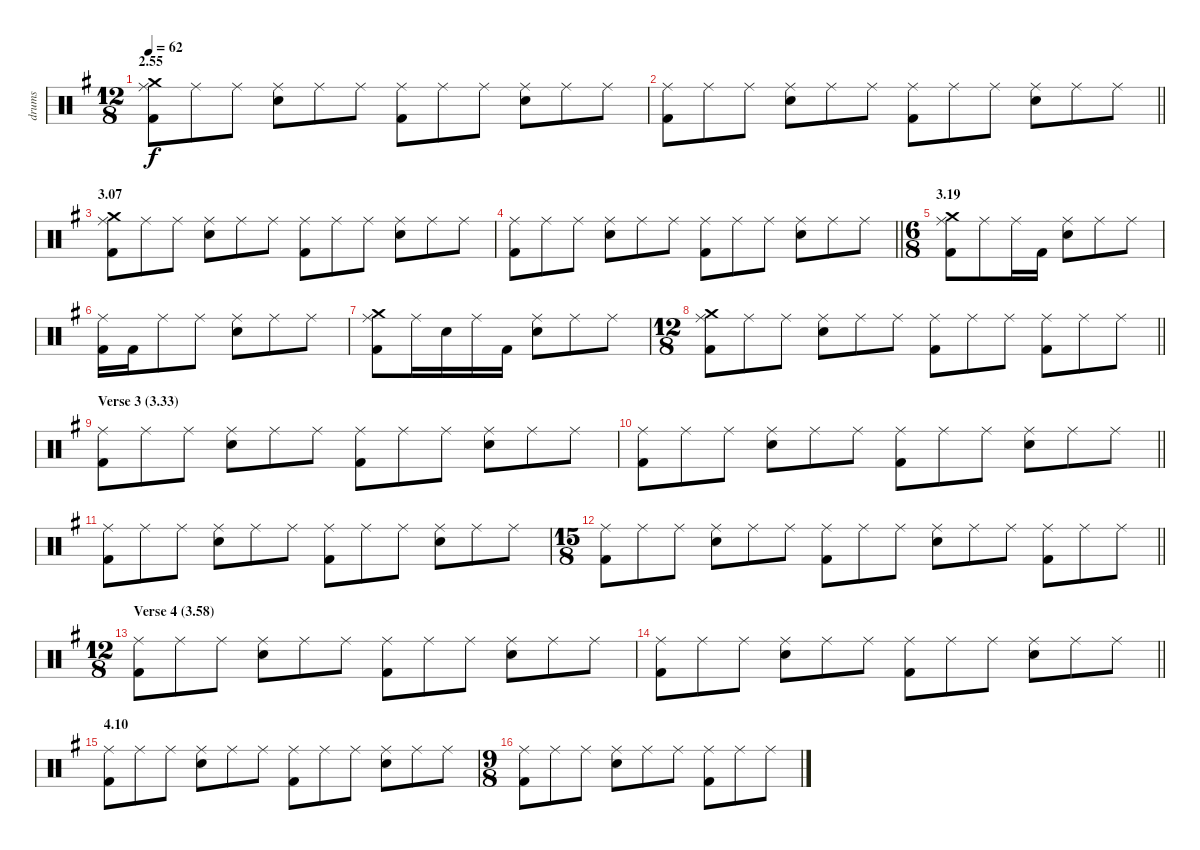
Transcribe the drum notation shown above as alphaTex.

\track ("drums" "drums") {instrument percussion}
\staff {score}
\articulation defaults
\ts (12 8)
\section ("" "2.55")
\tempo 62
\clef neutral
\ks g
("Ride (middle)" "Crash medium (hit)" "Kick (hit) 2").8{dy f} "Ride (middle)".8 "Ride (middle)".8 ("Ride (middle)" "Electric Snare (hit)").8 "Ride (middle)".8 "Ride (middle)".8 ("Ride (middle)" "Kick (hit) 2").8 "Ride (middle)".8 "Ride (middle)".8 ("Ride (middle)" "Electric Snare (hit)").8 "Ride (middle)".8 "Ride (middle)".8 |
\barLineRight lightlight
("Ride (middle)" "Kick (hit) 2").8 "Ride (middle)".8 "Ride (middle)".8 ("Ride (middle)" "Electric Snare (hit)").8 "Ride (middle)".8 "Ride (middle)".8 ("Ride (middle)" "Kick (hit) 2").8 "Ride (middle)".8 "Ride (middle)".8 ("Ride (middle)" "Electric Snare (hit)").8 "Ride (middle)".8 "Ride (middle)".8 |
\section ("" "3.07")
("Ride (middle)" "Crash medium (hit)" "Kick (hit) 2").8 "Ride (middle)".8 "Ride (middle)".8 ("Ride (middle)" "Electric Snare (hit)").8 "Ride (middle)".8 "Ride (middle)".8 ("Ride (middle)" "Kick (hit) 2").8 "Ride (middle)".8 "Ride (middle)".8 ("Ride (middle)" "Electric Snare (hit)").8 "Ride (middle)".8 "Ride (middle)".8 |
\barLineRight lightlight
("Ride (middle)" "Kick (hit) 2").8 "Ride (middle)".8 "Ride (middle)".8 ("Ride (middle)" "Electric Snare (hit)").8 "Ride (middle)".8 "Ride (middle)".8 ("Ride (middle)" "Kick (hit) 2").8 "Ride (middle)".8 "Ride (middle)".8 ("Ride (middle)" "Electric Snare (hit)").8 "Ride (middle)".8 "Ride (middle)".8 |
\ts (6 8)
\section ("" "3.19")
("Ride (middle)" "Crash medium (hit)" "Kick (hit) 2").8 "Ride (middle)".8 "Ride (middle)".16 "Kick (hit) 2".16 ("Ride (middle)" "Electric Snare (hit)").8 "Ride (middle)".8 "Ride (middle)".8 |
("Ride (middle)" "Kick (hit) 2").16 "Kick (hit) 2".16 "Ride (middle)".8 "Ride (middle)".8 ("Ride (middle)" "Electric Snare (hit)").8 "Ride (middle)".8 "Ride (middle)".8 |
("Ride (middle)" "Crash medium (hit)" "Kick (hit) 2").8 "Ride (middle)".16 "Electric Snare (hit)".16 "Ride (middle)".16 "Kick (hit) 2".16 ("Ride (middle)" "Electric Snare (hit)").8 "Ride (middle)".8 "Ride (middle)".8 |
\ts (12 8)
\barLineRight lightlight
("Ride (middle)" "Crash medium (hit)" "Kick (hit) 2").8 "Ride (middle)".8 "Ride (middle)".8 ("Ride (middle)" "Electric Snare (hit)").8 "Ride (middle)".8 "Ride (middle)".8 ("Ride (middle)" "Kick (hit) 2").8 "Ride (middle)".8 "Ride (middle)".8 ("Ride (middle)" "Kick (hit) 2").8 "Ride (middle)".8 "Ride (middle)".8 |
\section ("" "Verse 3 (3.33)")
("Ride (middle)" "Kick (hit) 2").8 "Ride (middle)".8 "Ride (middle)".8 ("Ride (middle)" "Electric Snare (hit)").8 "Ride (middle)".8 "Ride (middle)".8 ("Ride (middle)" "Kick (hit) 2").8 "Ride (middle)".8 "Ride (middle)".8 ("Ride (middle)" "Electric Snare (hit)").8 "Ride (middle)".8 "Ride (middle)".8 |
\barLineRight lightlight
("Ride (middle)" "Kick (hit) 2").8 "Ride (middle)".8 "Ride (middle)".8 ("Ride (middle)" "Electric Snare (hit)").8 "Ride (middle)".8 "Ride (middle)".8 ("Ride (middle)" "Kick (hit) 2").8 "Ride (middle)".8 "Ride (middle)".8 ("Ride (middle)" "Electric Snare (hit)").8 "Ride (middle)".8 "Ride (middle)".8 |
("Ride (middle)" "Kick (hit) 2").8 "Ride (middle)".8 "Ride (middle)".8 ("Ride (middle)" "Electric Snare (hit)").8 "Ride (middle)".8 "Ride (middle)".8 ("Ride (middle)" "Kick (hit) 2").8 "Ride (middle)".8 "Ride (middle)".8 ("Ride (middle)" "Electric Snare (hit)").8 "Ride (middle)".8 "Ride (middle)".8 |
\ts (15 8)
\barLineRight lightlight
("Ride (middle)" "Kick (hit) 2").8 "Ride (middle)".8 "Ride (middle)".8 ("Ride (middle)" "Electric Snare (hit)").8 "Ride (middle)".8 "Ride (middle)".8 ("Ride (middle)" "Kick (hit) 2").8 "Ride (middle)".8 "Ride (middle)".8 ("Ride (middle)" "Electric Snare (hit)").8 "Ride (middle)".8 "Ride (middle)".8 ("Ride (middle)" "Kick (hit) 2").8 "Ride (middle)".8 "Ride (middle)".8 |
\ts (12 8)
\section ("" "Verse 4 (3.58)")
("Ride (middle)" "Kick (hit) 2").8 "Ride (middle)".8 "Ride (middle)".8 ("Ride (middle)" "Electric Snare (hit)").8 "Ride (middle)".8 "Ride (middle)".8 ("Ride (middle)" "Kick (hit) 2").8 "Ride (middle)".8 "Ride (middle)".8 ("Ride (middle)" "Electric Snare (hit)").8 "Ride (middle)".8 "Ride (middle)".8 |
\barLineRight lightlight
("Ride (middle)" "Kick (hit) 2").8 "Ride (middle)".8 "Ride (middle)".8 ("Ride (middle)" "Electric Snare (hit)").8 "Ride (middle)".8 "Ride (middle)".8 ("Ride (middle)" "Kick (hit) 2").8 "Ride (middle)".8 "Ride (middle)".8 ("Ride (middle)" "Electric Snare (hit)").8 "Ride (middle)".8 "Ride (middle)".8 |
\section ("" "4.10")
("Ride (middle)" "Kick (hit) 2").8 "Ride (middle)".8 "Ride (middle)".8 ("Ride (middle)" "Electric Snare (hit)").8 "Ride (middle)".8 "Ride (middle)".8 ("Ride (middle)" "Kick (hit) 2").8 "Ride (middle)".8 "Ride (middle)".8 ("Ride (middle)" "Electric Snare (hit)").8 "Ride (middle)".8 "Ride (middle)".8 |
\ts (9 8)
("Ride (middle)" "Kick (hit) 2").8 "Ride (middle)".8 "Ride (middle)".8 ("Ride (middle)" "Electric Snare (hit)").8 "Ride (middle)".8 "Ride (middle)".8 ("Ride (middle)" "Kick (hit) 2").8 "Ride (middle)".8 "Ride (middle)".8
